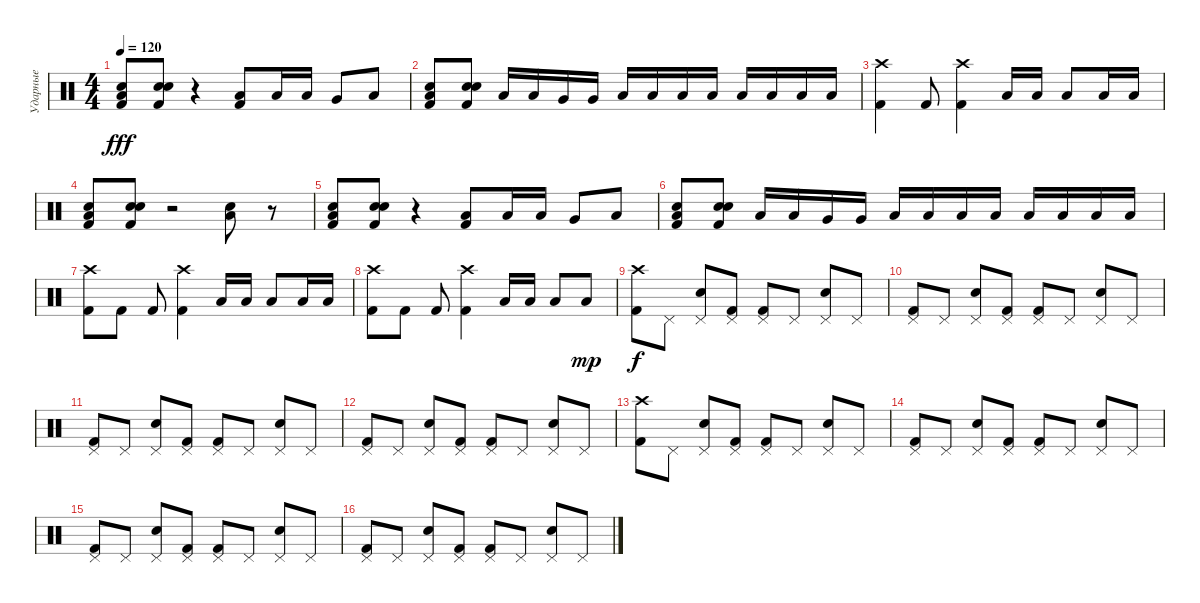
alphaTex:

\track ("Ударные" "Ударные") {instrument percussion}
\staff {score}
\articulation defaults
\ts (4 4)
\tempo 120
\clef neutral
\ks c
("Low Floor Tom (hit)" "Kick (hit) 2" "Snare (hit) 2").8{dy fff} ("Snare (hit)" "Kick (hit) 2" "Snare (hit) 2").8 r.4 ("Low Floor Tom (hit)" "Kick (hit) 2").8 "Low Tom (hit)".16 "Low Tom (hit)".16 "Very Low Tom (hit)".8 "Low Floor Tom (hit)".8 |
("Low Floor Tom (hit)" "Kick (hit) 2" "Snare (hit) 2").8 ("Snare (hit)" "Kick (hit) 2" "Snare (hit) 2").8 "Low Tom (hit)".16 "Low Tom (hit)".16 "Very Low Tom (hit)".16 "Very Low Tom (hit)".16 "Low Tom (hit)".16 "Low Tom (hit)".16 "Low Tom (hit)".16 "Low Tom (hit)".16 "Low Floor Tom (hit)".16 "Low Floor Tom (hit)".16 "Low Floor Tom (hit)".16 "Low Floor Tom (hit)".16 |
("Crash high (hit)" "Kick (hit) 2").4 "Kick (hit) 2".8 ("Crash high (hit)" "Kick (hit) 2").4 "Low Tom (hit)".16 "Low Tom (hit)".16 "Low Tom (hit)".8 "Low Tom (hit)".16 "Low Tom (hit)".16 |
("Low Floor Tom (hit)" "Kick (hit) 2" "Snare (hit) 2").8 ("Snare (hit)" "Kick (hit) 2" "Snare (hit) 2").8 r.2 ("Snare (hit) 2" "Low Floor Tom (hit)").8 r.8 |
("Low Floor Tom (hit)" "Kick (hit) 2" "Snare (hit) 2").8 ("Snare (hit)" "Kick (hit) 2" "Snare (hit) 2").8 r.4 ("Low Floor Tom (hit)" "Kick (hit) 2").8 "Low Tom (hit)".16 "Low Tom (hit)".16 "Very Low Tom (hit)".8 "Low Floor Tom (hit)".8 |
("Low Floor Tom (hit)" "Kick (hit) 2" "Snare (hit) 2").8 ("Snare (hit)" "Kick (hit) 2" "Snare (hit) 2").8 "Low Tom (hit)".16 "Low Tom (hit)".16 "Very Low Tom (hit)".16 "Very Low Tom (hit)".16 "Low Tom (hit)".16 "Low Tom (hit)".16 "Low Tom (hit)".16 "Low Tom (hit)".16 "Low Floor Tom (hit)".16 "Low Floor Tom (hit)".16 "Low Floor Tom (hit)".16 "Low Floor Tom (hit)".16 |
("Crash high (hit)" "Kick (hit) 2").8 "Kick (hit) 2".8 "Kick (hit) 2".8 ("Crash high (hit)" "Kick (hit) 2").4 "Low Tom (hit)".16 "Low Tom (hit)".16 "Low Tom (hit)".8 "Low Tom (hit)".16 "Low Tom (hit)".16 |
("Crash high (hit)" "Kick (hit) 2").8 "Kick (hit) 2".8 "Kick (hit) 2".8 ("Crash high (hit)" "Kick (hit) 2").4 "Low Tom (hit)".16 "Low Tom (hit)".16 "Low Tom (hit)".8 "Low Tom (hit)".8{dy mp} |
("Crash high (hit)" "Kick (hit) 2").8{dy f} "Pedal Hi-Hat (hit)".8 ("Pedal Hi-Hat (hit)" "Snare (hit) 2").8 ("Pedal Hi-Hat (hit)" "Kick (hit) 2").8 ("Pedal Hi-Hat (hit)" "Kick (hit) 2").8 "Pedal Hi-Hat (hit)".8 ("Pedal Hi-Hat (hit)" "Snare (hit) 2").8 "Pedal Hi-Hat (hit)".8 |
("Pedal Hi-Hat (hit)" "Kick (hit) 2").8 "Pedal Hi-Hat (hit)".8 ("Pedal Hi-Hat (hit)" "Snare (hit) 2").8 ("Pedal Hi-Hat (hit)" "Kick (hit) 2").8 ("Pedal Hi-Hat (hit)" "Kick (hit) 2").8 "Pedal Hi-Hat (hit)".8 ("Pedal Hi-Hat (hit)" "Snare (hit) 2").8 "Pedal Hi-Hat (hit)".8 |
("Pedal Hi-Hat (hit)" "Kick (hit) 2").8 "Pedal Hi-Hat (hit)".8 ("Pedal Hi-Hat (hit)" "Snare (hit) 2").8 ("Pedal Hi-Hat (hit)" "Kick (hit) 2").8 ("Pedal Hi-Hat (hit)" "Kick (hit) 2").8 "Pedal Hi-Hat (hit)".8 ("Pedal Hi-Hat (hit)" "Snare (hit) 2").8 "Pedal Hi-Hat (hit)".8 |
("Pedal Hi-Hat (hit)" "Kick (hit) 2").8 "Pedal Hi-Hat (hit)".8 ("Pedal Hi-Hat (hit)" "Snare (hit) 2").8 ("Pedal Hi-Hat (hit)" "Kick (hit) 2").8 ("Pedal Hi-Hat (hit)" "Kick (hit) 2").8 "Pedal Hi-Hat (hit)".8 ("Pedal Hi-Hat (hit)" "Snare (hit) 2").8 "Pedal Hi-Hat (hit)".8 |
("Crash high (hit)" "Kick (hit) 2").8 "Pedal Hi-Hat (hit)".8 ("Pedal Hi-Hat (hit)" "Snare (hit) 2").8 ("Pedal Hi-Hat (hit)" "Kick (hit) 2").8 ("Pedal Hi-Hat (hit)" "Kick (hit) 2").8 "Pedal Hi-Hat (hit)".8 ("Pedal Hi-Hat (hit)" "Snare (hit) 2").8 "Pedal Hi-Hat (hit)".8 |
("Pedal Hi-Hat (hit)" "Kick (hit) 2").8 "Pedal Hi-Hat (hit)".8 ("Pedal Hi-Hat (hit)" "Snare (hit) 2").8 ("Pedal Hi-Hat (hit)" "Kick (hit) 2").8 ("Pedal Hi-Hat (hit)" "Kick (hit) 2").8 "Pedal Hi-Hat (hit)".8 ("Pedal Hi-Hat (hit)" "Snare (hit) 2").8 "Pedal Hi-Hat (hit)".8 |
("Pedal Hi-Hat (hit)" "Kick (hit) 2").8 "Pedal Hi-Hat (hit)".8 ("Pedal Hi-Hat (hit)" "Snare (hit) 2").8 ("Pedal Hi-Hat (hit)" "Kick (hit) 2").8 ("Pedal Hi-Hat (hit)" "Kick (hit) 2").8 "Pedal Hi-Hat (hit)".8 ("Pedal Hi-Hat (hit)" "Snare (hit) 2").8 "Pedal Hi-Hat (hit)".8 |
("Pedal Hi-Hat (hit)" "Kick (hit) 2").8 "Pedal Hi-Hat (hit)".8 ("Pedal Hi-Hat (hit)" "Snare (hit) 2").8 ("Pedal Hi-Hat (hit)" "Kick (hit) 2").8 ("Pedal Hi-Hat (hit)" "Kick (hit) 2").8 "Pedal Hi-Hat (hit)".8 ("Pedal Hi-Hat (hit)" "Snare (hit) 2").8 "Pedal Hi-Hat (hit)".8
